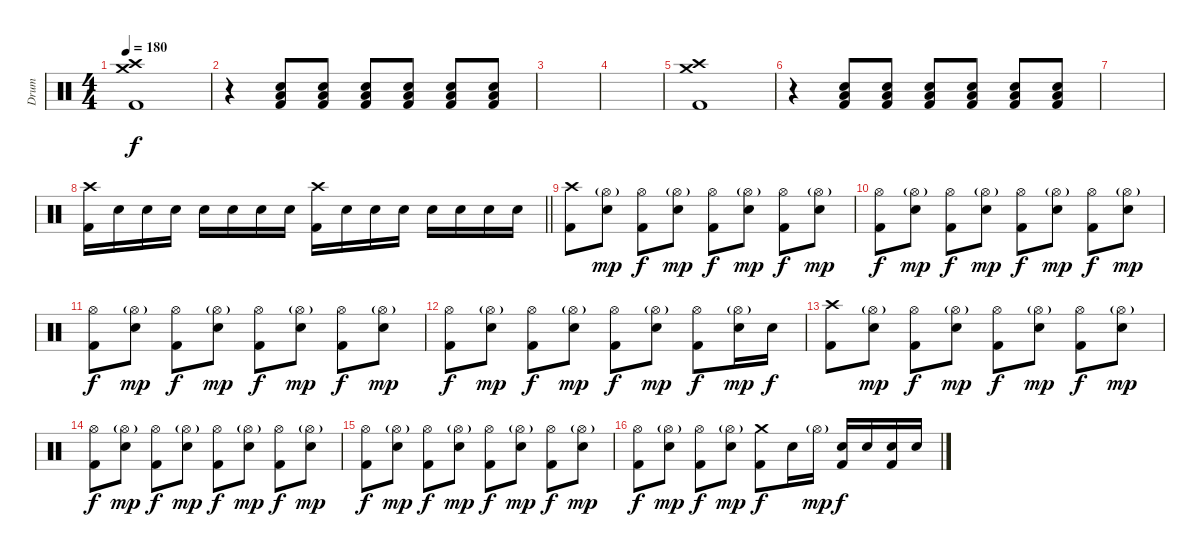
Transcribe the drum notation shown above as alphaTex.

\track ("Drum" "Drum") {instrument percussion}
\staff {score}
\articulation defaults
\ts (4 4)
\tempo 180
\clef neutral
\ks c
("Crash medium (hit)" "Crash high (hit)" "Kick (hit) 2").1{dy f} |
r.4 ("Low Floor Tom (hit)" "Snare (hit) 2" "Kick (hit) 2").8 ("Low Floor Tom (hit)" "Snare (hit) 2" "Kick (hit) 2").8 ("Low Floor Tom (hit)" "Snare (hit) 2" "Kick (hit) 2").8 ("Low Floor Tom (hit)" "Snare (hit) 2" "Kick (hit) 2").8 ("Low Floor Tom (hit)" "Snare (hit) 2" "Kick (hit) 2").8 ("Low Floor Tom (hit)" "Snare (hit) 2" "Kick (hit) 2").8 |
|
|
("Crash medium (hit)" "Crash high (hit)" "Kick (hit) 2").1 |
r.4 ("Low Floor Tom (hit)" "Snare (hit) 2" "Kick (hit) 2").8 ("Low Floor Tom (hit)" "Snare (hit) 2" "Kick (hit) 2").8 ("Low Floor Tom (hit)" "Snare (hit) 2" "Kick (hit) 2").8 ("Low Floor Tom (hit)" "Snare (hit) 2" "Kick (hit) 2").8 ("Low Floor Tom (hit)" "Snare (hit) 2" "Kick (hit) 2").8 ("Low Floor Tom (hit)" "Snare (hit) 2" "Kick (hit) 2").8 |
|
\barLineRight lightlight
("Crash high (hit)" "Kick (hit) 2").16 "Snare (hit) 2".16 "Snare (hit) 2".16 "Snare (hit) 2".16 "Snare (hit) 2".16 "Snare (hit) 2".16 "Snare (hit) 2".16 "Snare (hit) 2".16 ("Crash high (hit)" "Kick (hit) 2").16 "Snare (hit) 2".16 "Snare (hit) 2".16 "Snare (hit) 2".16 "Snare (hit) 2".16 "Snare (hit) 2".16 "Snare (hit) 2".16 "Snare (hit) 2".16 |
\section ("" "")
("Crash high (hit)" "Kick (hit) 2").8 ("Hi-Hat (open)"{g} "Snare (hit) 2").8{dy mp} ("Hi-Hat (open)" "Kick (hit) 2").8{dy f} ("Hi-Hat (open)"{g} "Snare (hit) 2").8{dy mp} ("Hi-Hat (open)" "Kick (hit) 2").8{dy f} ("Hi-Hat (open)"{g} "Snare (hit) 2").8{dy mp} ("Hi-Hat (open)" "Kick (hit) 2").8{dy f} ("Hi-Hat (open)"{g} "Snare (hit) 2").8{dy mp} |
("Hi-Hat (open)" "Kick (hit) 2").8{dy f} ("Hi-Hat (open)"{g} "Snare (hit) 2").8{dy mp} ("Hi-Hat (open)" "Kick (hit) 2").8{dy f} ("Hi-Hat (open)"{g} "Snare (hit) 2").8{dy mp} ("Hi-Hat (open)" "Kick (hit) 2").8{dy f} ("Hi-Hat (open)"{g} "Snare (hit) 2").8{dy mp} ("Hi-Hat (open)" "Kick (hit) 2").8{dy f} ("Hi-Hat (open)"{g} "Snare (hit) 2").8{dy mp} |
("Hi-Hat (open)" "Kick (hit) 2").8{dy f} ("Hi-Hat (open)"{g} "Snare (hit) 2").8{dy mp} ("Hi-Hat (open)" "Kick (hit) 2").8{dy f} ("Hi-Hat (open)"{g} "Snare (hit) 2").8{dy mp} ("Hi-Hat (open)" "Kick (hit) 2").8{dy f} ("Hi-Hat (open)"{g} "Snare (hit) 2").8{dy mp} ("Hi-Hat (open)" "Kick (hit) 2").8{dy f} ("Hi-Hat (open)"{g} "Snare (hit) 2").8{dy mp} |
("Hi-Hat (open)" "Kick (hit) 2").8{dy f} ("Hi-Hat (open)"{g} "Snare (hit) 2").8{dy mp} ("Hi-Hat (open)" "Kick (hit) 2").8{dy f} ("Hi-Hat (open)"{g} "Snare (hit) 2").8{dy mp} ("Hi-Hat (open)" "Kick (hit) 2").8{dy f} ("Hi-Hat (open)"{g} "Snare (hit) 2").8{dy mp} ("Hi-Hat (open)" "Kick (hit) 2").8{dy f} ("Hi-Hat (open)"{g} "Snare (hit) 2").16{dy mp} "Snare (hit) 2".16{dy f} |
("Crash high (hit)" "Kick (hit) 2").8 ("Hi-Hat (open)"{g} "Snare (hit) 2").8{dy mp} ("Hi-Hat (open)" "Kick (hit) 2").8{dy f} ("Hi-Hat (open)"{g} "Snare (hit) 2").8{dy mp} ("Hi-Hat (open)" "Kick (hit) 2").8{dy f} ("Hi-Hat (open)"{g} "Snare (hit) 2").8{dy mp} ("Hi-Hat (open)" "Kick (hit) 2").8{dy f} ("Hi-Hat (open)"{g} "Snare (hit) 2").8{dy mp} |
("Hi-Hat (open)" "Kick (hit) 2").8{dy f} ("Hi-Hat (open)"{g} "Snare (hit) 2").8{dy mp} ("Hi-Hat (open)" "Kick (hit) 2").8{dy f} ("Hi-Hat (open)"{g} "Snare (hit) 2").8{dy mp} ("Hi-Hat (open)" "Kick (hit) 2").8{dy f} ("Hi-Hat (open)"{g} "Snare (hit) 2").8{dy mp} ("Hi-Hat (open)" "Kick (hit) 2").8{dy f} ("Hi-Hat (open)"{g} "Snare (hit) 2").8{dy mp} |
("Hi-Hat (open)" "Kick (hit) 2").8{dy f} ("Hi-Hat (open)"{g} "Snare (hit) 2").8{dy mp} ("Hi-Hat (open)" "Kick (hit) 2").8{dy f} ("Hi-Hat (open)"{g} "Snare (hit) 2").8{dy mp} ("Hi-Hat (open)" "Kick (hit) 2").8{dy f} ("Hi-Hat (open)"{g} "Snare (hit) 2").8{dy mp} ("Hi-Hat (open)" "Kick (hit) 2").8{dy f} ("Hi-Hat (open)"{g} "Snare (hit) 2").8{dy mp} |
("Hi-Hat (open)" "Kick (hit) 2").8{dy f} ("Hi-Hat (open)"{g} "Snare (hit) 2").8{dy mp} ("Hi-Hat (open)" "Kick (hit) 2").8{dy f} ("Hi-Hat (open)"{g} "Snare (hit) 2").8{dy mp} ("Crash medium (hit)" "Kick (hit) 2").8{dy f} "Snare (hit) 2".16 "Hi-Hat (open)"{g}.16{dy mp} ("Snare (hit) 2" "Kick (hit) 2").16{dy f} "Snare (hit) 2".16 ("Snare (hit) 2" "Kick (hit) 2").16 "Snare (hit) 2".16
